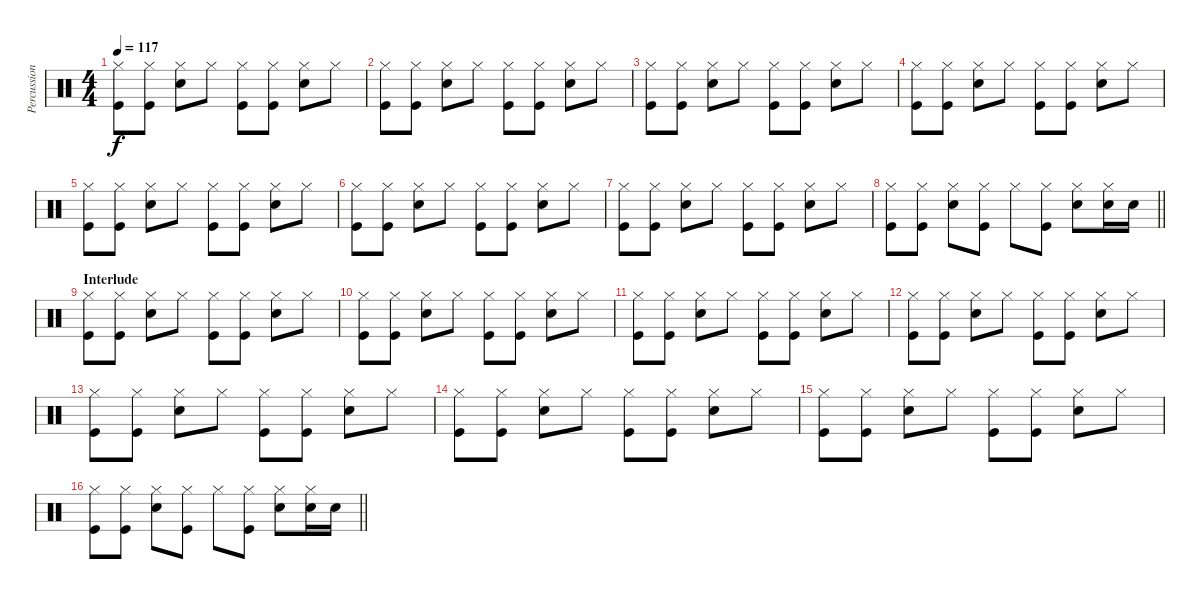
\track ("Percussion" "Percussion") {instrument percussion}
\staff
\articulation defaults
\ts (4 4)
\tempo 117
\clef neutral
\ks c
("Hi-Hat (closed)" "Kick (hit)").8{dy f} ("Hi-Hat (closed)" "Kick (hit)").8 ("Hi-Hat (closed)" "Snare (hit) 2").8 "Hi-Hat (closed)".8 ("Hi-Hat (closed)" "Kick (hit)").8 ("Hi-Hat (closed)" "Kick (hit)").8 ("Hi-Hat (closed)" "Snare (hit) 2").8 "Hi-Hat (closed)".8 |
("Hi-Hat (closed)" "Kick (hit)").8 ("Hi-Hat (closed)" "Kick (hit)").8 ("Hi-Hat (closed)" "Snare (hit) 2").8 "Hi-Hat (closed)".8 ("Hi-Hat (closed)" "Kick (hit)").8 ("Hi-Hat (closed)" "Kick (hit)").8 ("Hi-Hat (closed)" "Snare (hit) 2").8 "Hi-Hat (closed)".8 |
("Hi-Hat (closed)" "Kick (hit)").8 ("Hi-Hat (closed)" "Kick (hit)").8 ("Hi-Hat (closed)" "Snare (hit) 2").8 "Hi-Hat (closed)".8 ("Hi-Hat (closed)" "Kick (hit)").8 ("Hi-Hat (closed)" "Kick (hit)").8 ("Hi-Hat (closed)" "Snare (hit) 2").8 "Hi-Hat (closed)".8 |
("Hi-Hat (closed)" "Kick (hit)").8 ("Hi-Hat (closed)" "Kick (hit)").8 ("Hi-Hat (closed)" "Snare (hit) 2").8 "Hi-Hat (closed)".8 ("Hi-Hat (closed)" "Kick (hit)").8 ("Hi-Hat (closed)" "Kick (hit)").8 ("Hi-Hat (closed)" "Snare (hit) 2").8 "Hi-Hat (closed)".8 |
("Hi-Hat (closed)" "Kick (hit)").8 ("Hi-Hat (closed)" "Kick (hit)").8 ("Hi-Hat (closed)" "Snare (hit) 2").8 "Hi-Hat (closed)".8 ("Hi-Hat (closed)" "Kick (hit)").8 ("Hi-Hat (closed)" "Kick (hit)").8 ("Hi-Hat (closed)" "Snare (hit) 2").8 "Hi-Hat (closed)".8 |
("Hi-Hat (closed)" "Kick (hit)").8 ("Hi-Hat (closed)" "Kick (hit)").8 ("Hi-Hat (closed)" "Snare (hit) 2").8 "Hi-Hat (closed)".8 ("Hi-Hat (closed)" "Kick (hit)").8 ("Hi-Hat (closed)" "Kick (hit)").8 ("Hi-Hat (closed)" "Snare (hit) 2").8 "Hi-Hat (closed)".8 |
("Hi-Hat (closed)" "Kick (hit)").8 ("Hi-Hat (closed)" "Kick (hit)").8 ("Hi-Hat (closed)" "Snare (hit) 2").8 "Hi-Hat (closed)".8 ("Hi-Hat (closed)" "Kick (hit)").8 ("Hi-Hat (closed)" "Kick (hit)").8 ("Hi-Hat (closed)" "Snare (hit) 2").8 "Hi-Hat (closed)".8 |
\barLineRight lightlight
("Hi-Hat (closed)" "Kick (hit)").8 ("Hi-Hat (closed)" "Kick (hit)").8 ("Hi-Hat (closed)" "Snare (hit) 2").8 ("Hi-Hat (closed)" "Kick (hit)").8 "Hi-Hat (closed)".8 ("Hi-Hat (closed)" "Kick (hit)").8 ("Hi-Hat (closed)" "Snare (hit) 2").8 ("Hi-Hat (closed)" "Snare (hit) 2").16 "Snare (hit) 2".16 |
\section ("" "Interlude")
("Hi-Hat (closed)" "Kick (hit)").8 ("Hi-Hat (closed)" "Kick (hit)").8 ("Hi-Hat (closed)" "Snare (hit) 2").8 "Hi-Hat (closed)".8 ("Hi-Hat (closed)" "Kick (hit)").8 ("Hi-Hat (closed)" "Kick (hit)").8 ("Hi-Hat (closed)" "Snare (hit) 2").8 "Hi-Hat (closed)".8 |
("Hi-Hat (closed)" "Kick (hit)").8 ("Hi-Hat (closed)" "Kick (hit)").8 ("Hi-Hat (closed)" "Snare (hit) 2").8 "Hi-Hat (closed)".8 ("Hi-Hat (closed)" "Kick (hit)").8 ("Hi-Hat (closed)" "Kick (hit)").8 ("Hi-Hat (closed)" "Snare (hit) 2").8 "Hi-Hat (closed)".8 |
("Hi-Hat (closed)" "Kick (hit)").8 ("Hi-Hat (closed)" "Kick (hit)").8 ("Hi-Hat (closed)" "Snare (hit) 2").8 "Hi-Hat (closed)".8 ("Hi-Hat (closed)" "Kick (hit)").8 ("Hi-Hat (closed)" "Kick (hit)").8 ("Hi-Hat (closed)" "Snare (hit) 2").8 "Hi-Hat (closed)".8 |
("Hi-Hat (closed)" "Kick (hit)").8 ("Hi-Hat (closed)" "Kick (hit)").8 ("Hi-Hat (closed)" "Snare (hit) 2").8 "Hi-Hat (closed)".8 ("Hi-Hat (closed)" "Kick (hit)").8 ("Hi-Hat (closed)" "Kick (hit)").8 ("Hi-Hat (closed)" "Snare (hit) 2").8 "Hi-Hat (closed)".8 |
("Hi-Hat (closed)" "Kick (hit)").8 ("Hi-Hat (closed)" "Kick (hit)").8 ("Hi-Hat (closed)" "Snare (hit) 2").8 "Hi-Hat (closed)".8 ("Hi-Hat (closed)" "Kick (hit)").8 ("Hi-Hat (closed)" "Kick (hit)").8 ("Hi-Hat (closed)" "Snare (hit) 2").8 "Hi-Hat (closed)".8 |
("Hi-Hat (closed)" "Kick (hit)").8 ("Hi-Hat (closed)" "Kick (hit)").8 ("Hi-Hat (closed)" "Snare (hit) 2").8 "Hi-Hat (closed)".8 ("Hi-Hat (closed)" "Kick (hit)").8 ("Hi-Hat (closed)" "Kick (hit)").8 ("Hi-Hat (closed)" "Snare (hit) 2").8 "Hi-Hat (closed)".8 |
("Hi-Hat (closed)" "Kick (hit)").8 ("Hi-Hat (closed)" "Kick (hit)").8 ("Hi-Hat (closed)" "Snare (hit) 2").8 "Hi-Hat (closed)".8 ("Hi-Hat (closed)" "Kick (hit)").8 ("Hi-Hat (closed)" "Kick (hit)").8 ("Hi-Hat (closed)" "Snare (hit) 2").8 "Hi-Hat (closed)".8 |
\barLineRight lightlight
("Hi-Hat (closed)" "Kick (hit)").8 ("Hi-Hat (closed)" "Kick (hit)").8 ("Hi-Hat (closed)" "Snare (hit) 2").8 ("Hi-Hat (closed)" "Kick (hit)").8 "Hi-Hat (closed)".8 ("Hi-Hat (closed)" "Kick (hit)").8 ("Hi-Hat (closed)" "Snare (hit) 2").8 ("Hi-Hat (closed)" "Snare (hit) 2").16 "Snare (hit) 2".16
